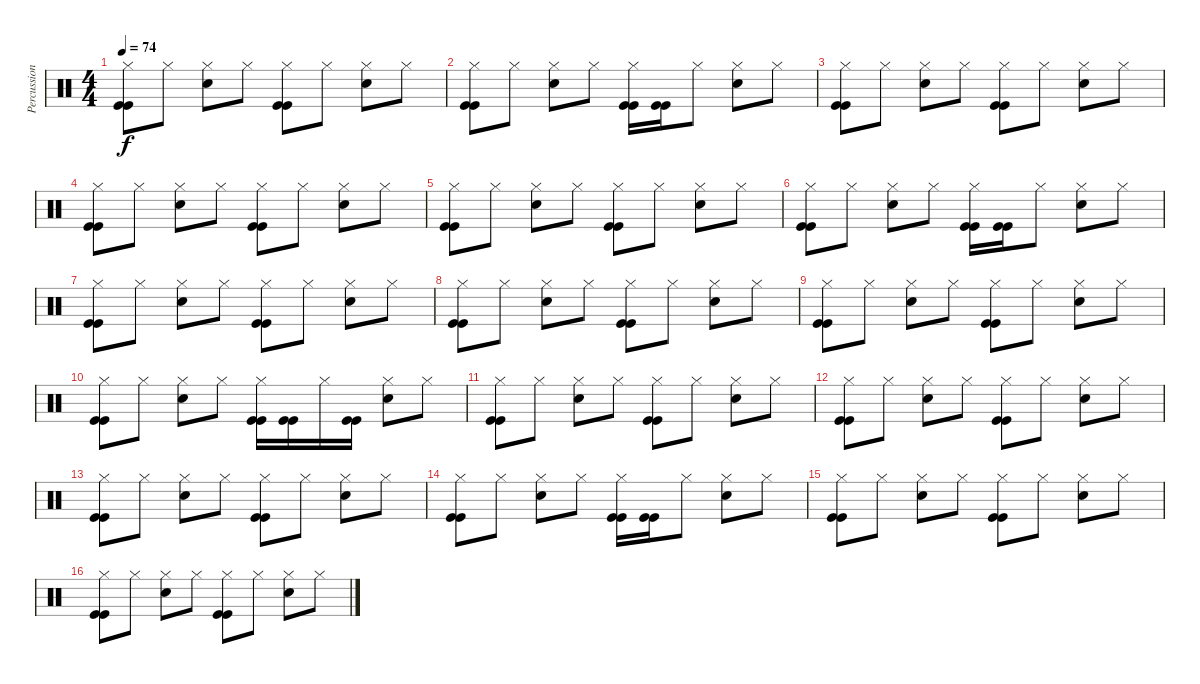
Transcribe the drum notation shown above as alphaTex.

\track ("Percussions" "Percussion") {instrument percussion}
\staff {score}
\articulation defaults
\ts (4 4)
\tempo 74
\clef neutral
\ks c
("Hi-Hat (closed)" "Kick (hit)" "Kick (hit)").8{dy f} "Hi-Hat (closed)".8 ("Hi-Hat (closed)" "Snare (hit) 2").8 "Hi-Hat (closed)".8 ("Hi-Hat (closed)" "Kick (hit)" "Kick (hit)").8 "Hi-Hat (closed)".8 ("Hi-Hat (closed)" "Snare (hit) 2").8 "Hi-Hat (closed)".8 |
("Hi-Hat (closed)" "Kick (hit)" "Kick (hit)").8 "Hi-Hat (closed)".8 ("Hi-Hat (closed)" "Snare (hit) 2").8 "Hi-Hat (closed)".8 ("Hi-Hat (closed)" "Kick (hit)" "Kick (hit)").16 ("Kick (hit)" "Kick (hit)").16 "Hi-Hat (closed)".8 ("Hi-Hat (closed)" "Snare (hit) 2").8 "Hi-Hat (closed)".8 |
("Hi-Hat (closed)" "Kick (hit)" "Kick (hit)").8 "Hi-Hat (closed)".8 ("Hi-Hat (closed)" "Snare (hit) 2").8 "Hi-Hat (closed)".8 ("Hi-Hat (closed)" "Kick (hit)" "Kick (hit)").8 "Hi-Hat (closed)".8 ("Hi-Hat (closed)" "Snare (hit) 2").8 "Hi-Hat (closed)".8 |
("Hi-Hat (closed)" "Kick (hit)" "Kick (hit)").8 "Hi-Hat (closed)".8 ("Hi-Hat (closed)" "Snare (hit) 2").8 "Hi-Hat (closed)".8 ("Hi-Hat (closed)" "Kick (hit)" "Kick (hit)").8 "Hi-Hat (closed)".8 ("Hi-Hat (closed)" "Snare (hit) 2").8 "Hi-Hat (closed)".8 |
("Hi-Hat (closed)" "Kick (hit)" "Kick (hit)").8 "Hi-Hat (closed)".8 ("Hi-Hat (closed)" "Snare (hit) 2").8 "Hi-Hat (closed)".8 ("Hi-Hat (closed)" "Kick (hit)" "Kick (hit)").8 "Hi-Hat (closed)".8 ("Hi-Hat (closed)" "Snare (hit) 2").8 "Hi-Hat (closed)".8 |
("Hi-Hat (closed)" "Kick (hit)" "Kick (hit)").8 "Hi-Hat (closed)".8 ("Hi-Hat (closed)" "Snare (hit) 2").8 "Hi-Hat (closed)".8 ("Hi-Hat (closed)" "Kick (hit)" "Kick (hit)").16 ("Kick (hit)" "Kick (hit)").16 "Hi-Hat (closed)".8 ("Hi-Hat (closed)" "Snare (hit) 2").8 "Hi-Hat (closed)".8 |
("Hi-Hat (closed)" "Kick (hit)" "Kick (hit)").8 "Hi-Hat (closed)".8 ("Hi-Hat (closed)" "Snare (hit) 2").8 "Hi-Hat (closed)".8 ("Hi-Hat (closed)" "Kick (hit)" "Kick (hit)").8 "Hi-Hat (closed)".8 ("Hi-Hat (closed)" "Snare (hit) 2").8 "Hi-Hat (closed)".8 |
("Hi-Hat (closed)" "Kick (hit)" "Kick (hit)").8 "Hi-Hat (closed)".8 ("Hi-Hat (closed)" "Snare (hit) 2").8 "Hi-Hat (closed)".8 ("Hi-Hat (closed)" "Kick (hit)" "Kick (hit)").8 "Hi-Hat (closed)".8 ("Hi-Hat (closed)" "Snare (hit) 2").8 "Hi-Hat (closed)".8 |
("Hi-Hat (closed)" "Kick (hit)" "Kick (hit)").8 "Hi-Hat (closed)".8 ("Hi-Hat (closed)" "Snare (hit) 2").8 "Hi-Hat (closed)".8 ("Hi-Hat (closed)" "Kick (hit)" "Kick (hit)").8 "Hi-Hat (closed)".8 ("Hi-Hat (closed)" "Snare (hit) 2").8 "Hi-Hat (closed)".8 |
("Hi-Hat (closed)" "Kick (hit)" "Kick (hit)").8 "Hi-Hat (closed)".8 ("Hi-Hat (closed)" "Snare (hit) 2").8 "Hi-Hat (closed)".8 ("Hi-Hat (closed)" "Kick (hit)" "Kick (hit)").16 ("Kick (hit)" "Kick (hit)").16 "Hi-Hat (closed)".16 ("Kick (hit)" "Kick (hit)").16 ("Hi-Hat (closed)" "Snare (hit) 2").8 "Hi-Hat (closed)".8 |
("Hi-Hat (closed)" "Kick (hit)" "Kick (hit)").8 "Hi-Hat (closed)".8 ("Hi-Hat (closed)" "Snare (hit) 2").8 "Hi-Hat (closed)".8 ("Hi-Hat (closed)" "Kick (hit)" "Kick (hit)").8 "Hi-Hat (closed)".8 ("Hi-Hat (closed)" "Snare (hit) 2").8 "Hi-Hat (closed)".8 |
("Hi-Hat (closed)" "Kick (hit)" "Kick (hit)").8 "Hi-Hat (closed)".8 ("Hi-Hat (closed)" "Snare (hit) 2").8 "Hi-Hat (closed)".8 ("Hi-Hat (closed)" "Kick (hit)" "Kick (hit)").8 "Hi-Hat (closed)".8 ("Hi-Hat (closed)" "Snare (hit) 2").8 "Hi-Hat (closed)".8 |
("Hi-Hat (closed)" "Kick (hit)" "Kick (hit)").8 "Hi-Hat (closed)".8 ("Hi-Hat (closed)" "Snare (hit) 2").8 "Hi-Hat (closed)".8 ("Hi-Hat (closed)" "Kick (hit)" "Kick (hit)").8 "Hi-Hat (closed)".8 ("Hi-Hat (closed)" "Snare (hit) 2").8 "Hi-Hat (closed)".8 |
("Hi-Hat (closed)" "Kick (hit)" "Kick (hit)").8 "Hi-Hat (closed)".8 ("Hi-Hat (closed)" "Snare (hit) 2").8 "Hi-Hat (closed)".8 ("Hi-Hat (closed)" "Kick (hit)" "Kick (hit)").16 ("Kick (hit)" "Kick (hit)").16 "Hi-Hat (closed)".8 ("Hi-Hat (closed)" "Snare (hit) 2").8 "Hi-Hat (closed)".8 |
("Hi-Hat (closed)" "Kick (hit)" "Kick (hit)").8 "Hi-Hat (closed)".8 ("Hi-Hat (closed)" "Snare (hit) 2").8 "Hi-Hat (closed)".8 ("Hi-Hat (closed)" "Kick (hit)" "Kick (hit)").8 "Hi-Hat (closed)".8 ("Hi-Hat (closed)" "Snare (hit) 2").8 "Hi-Hat (closed)".8 |
("Hi-Hat (closed)" "Kick (hit)" "Kick (hit)").8 "Hi-Hat (closed)".8 ("Hi-Hat (closed)" "Snare (hit) 2").8 "Hi-Hat (closed)".8 ("Hi-Hat (closed)" "Kick (hit)" "Kick (hit)").8 "Hi-Hat (closed)".8 ("Hi-Hat (closed)" "Snare (hit) 2").8 "Hi-Hat (closed)".8
